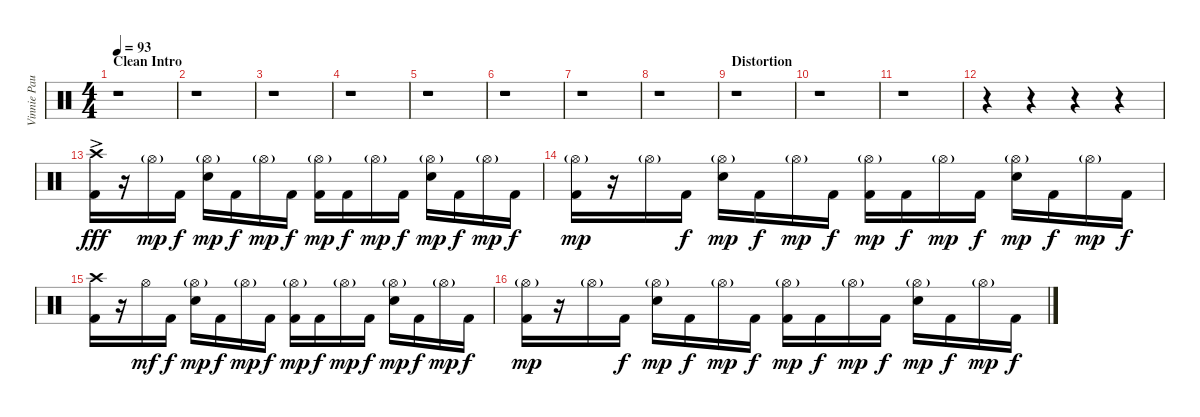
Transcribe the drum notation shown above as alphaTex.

\track ("Vinnie Paul" "Vinnie Pau") {instrument percussion}
\staff {score}
\articulation defaults
\ts (4 4)
\section ("" "Clean Intro")
\tempo 93
\clef neutral
\ks c
r.1{dy fff} |
r.1 |
r.1 |
r.1 |
r.1 |
r.1 |
r.1 |
r.1 |
\section ("" "Distortion")
r.1 |
r.1 |
r.1 |
r.4 r.4 r.4 r.4 |
("Crash high (hit)" "Kick (hit) 2"{ac}).16 r.16 "Hi-Hat (open)"{g}.16{dy mp} "Kick (hit) 2".16{dy f} ("Hi-Hat (open)"{g} "Electric Snare (hit)").16{dy mp} "Kick (hit) 2".16{dy f} "Hi-Hat (open)"{g}.16{dy mp} "Kick (hit) 2".16{dy f} ("Hi-Hat (open)"{g} "Kick (hit) 2").16{dy mp} "Kick (hit) 2".16{dy f} "Hi-Hat (open)"{g}.16{dy mp} "Kick (hit) 2".16{dy f} ("Hi-Hat (open)"{g} "Electric Snare (hit)").16{dy mp} "Kick (hit) 2".16{dy f} "Hi-Hat (open)"{g}.16{dy mp} "Kick (hit) 2".16{dy f} |
("Hi-Hat (open)"{g} "Kick (hit) 2").16{dy mp} r.16 "Hi-Hat (open)"{g}.16 "Kick (hit) 2".16{dy f} ("Hi-Hat (open)"{g} "Electric Snare (hit)").16{dy mp} "Kick (hit) 2".16{dy f} "Hi-Hat (open)"{g}.16{dy mp} "Kick (hit) 2".16{dy f} ("Hi-Hat (open)"{g} "Kick (hit) 2").16{dy mp} "Kick (hit) 2".16{dy f} "Hi-Hat (open)"{g}.16{dy mp} "Kick (hit) 2".16{dy f} ("Hi-Hat (open)"{g} "Electric Snare (hit)").16{dy mp} "Kick (hit) 2".16{dy f} "Hi-Hat (open)"{g}.16{dy mp} "Kick (hit) 2".16{dy f} |
("Crash high (hit)" "Kick (hit) 2").16 r.16 "Hi-Hat (open)".16{dy mf} "Kick (hit) 2".16{dy f} ("Hi-Hat (open)"{g} "Electric Snare (hit)").16{dy mp} "Kick (hit) 2".16{dy f} "Hi-Hat (open)"{g}.16{dy mp} "Kick (hit) 2".16{dy f} ("Hi-Hat (open)"{g} "Kick (hit) 2").16{dy mp} "Kick (hit) 2".16{dy f} "Hi-Hat (open)"{g}.16{dy mp} "Kick (hit) 2".16{dy f} ("Hi-Hat (open)"{g} "Electric Snare (hit)").16{dy mp} "Kick (hit) 2".16{dy f} "Hi-Hat (open)"{g}.16{dy mp} "Kick (hit) 2".16{dy f} |
("Hi-Hat (open)"{g} "Kick (hit) 2").16{dy mp} r.16 "Hi-Hat (open)"{g}.16 "Kick (hit) 2".16{dy f} ("Hi-Hat (open)"{g} "Electric Snare (hit)").16{dy mp} "Kick (hit) 2".16{dy f} "Hi-Hat (open)"{g}.16{dy mp} "Kick (hit) 2".16{dy f} ("Hi-Hat (open)"{g} "Kick (hit) 2").16{dy mp} "Kick (hit) 2".16{dy f} "Hi-Hat (open)"{g}.16{dy mp} "Kick (hit) 2".16{dy f} ("Hi-Hat (open)"{g} "Electric Snare (hit)").16{dy mp} "Kick (hit) 2".16{dy f} "Hi-Hat (open)"{g}.16{dy mp} "Kick (hit) 2".16{dy f}
